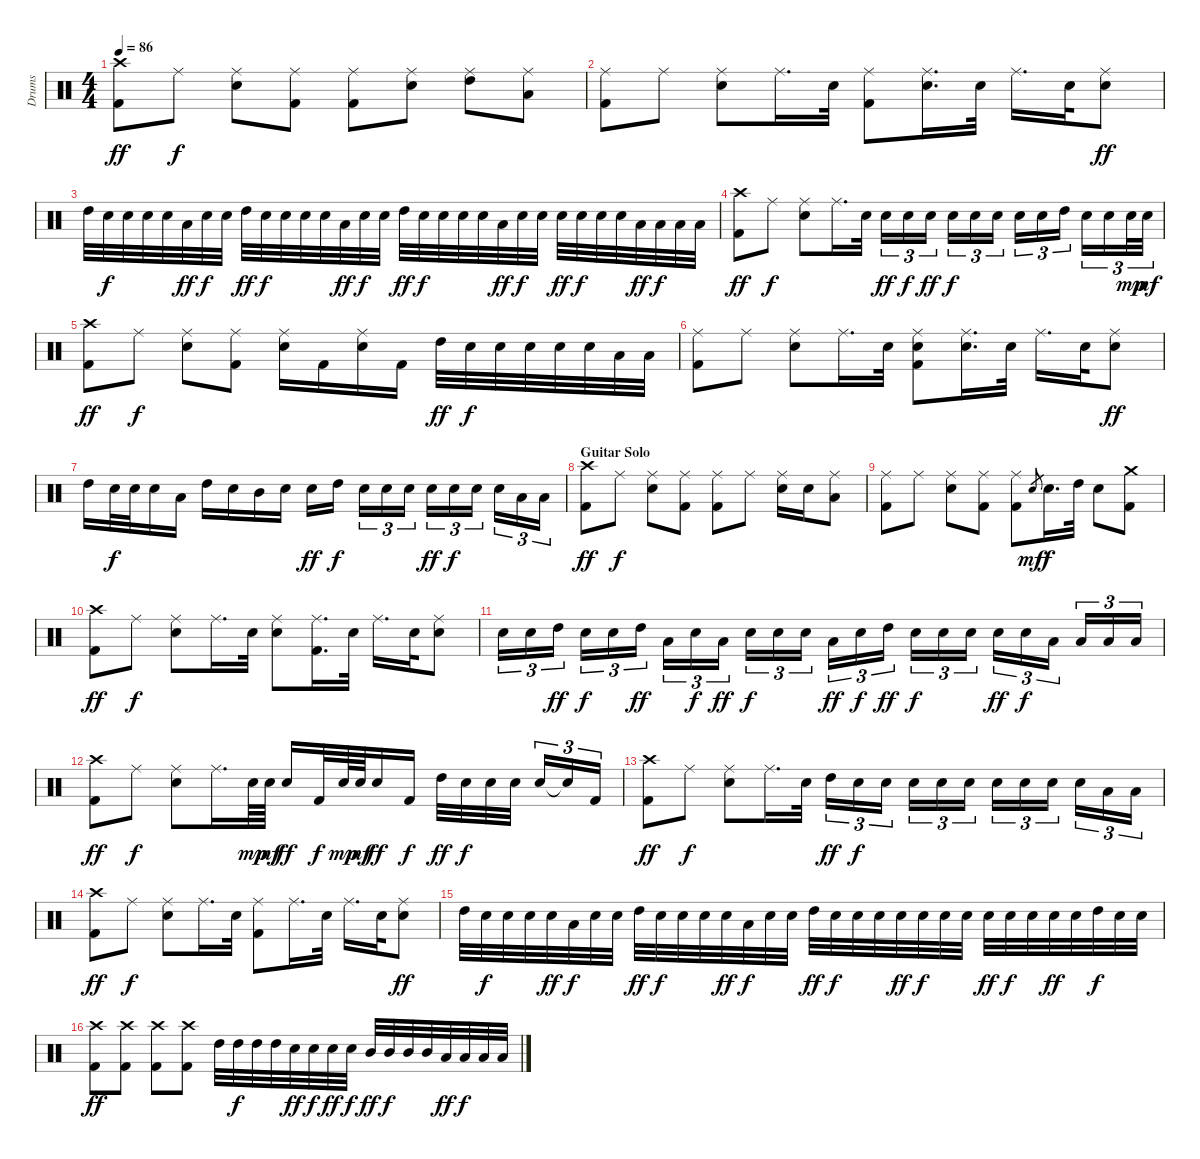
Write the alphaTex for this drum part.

\track ("Drums" "Drums") {instrument percussion}
\staff {score}
\articulation defaults
\ts (4 4)
\tempo 86
\clef neutral
\ks c
("Crash high (hit)" "Kick (hit) 2").8{dy ff} "Ride (middle)".8{dy f} ("Ride (middle)" "Electric Snare (hit)").8 ("Ride (middle)" "Kick (hit) 2").8 ("Ride (middle)" "Kick (hit) 2").8 ("Ride (middle)" "Electric Snare (hit)").8 ("Ride (middle)" "High Tom (hit)").8 ("Ride (middle)" "Low Tom (hit)").8 |
("Ride (middle)" "Kick (hit) 2").8 "Ride (middle)".8 ("Ride (middle)" "Electric Snare (hit)").8 "Ride (middle)".16{d} "Electric Snare (hit)".32 ("Ride (middle)" "Kick (hit) 2").8 ("Ride (middle)" "Electric Snare (hit)").16{d} "Electric Snare (hit)".32 "Ride (middle)".16{d} "Electric Snare (hit)".32 ("Ride (middle)" "Electric Snare (hit)").8{dy ff} |
"High Tom (hit)".32 "Electric Snare (hit)".32{dy f} "Electric Snare (hit)".32 "Electric Snare (hit)".32 "Electric Snare (hit)".32 "Low Tom (hit)".32{dy ff} "Electric Snare (hit)".32{dy f} "Electric Snare (hit)".32 "High Tom (hit)".32{dy ff} "Electric Snare (hit)".32{dy f} "Electric Snare (hit)".32 "Electric Snare (hit)".32 "Electric Snare (hit)".32 "Low Tom (hit)".32{dy ff} "Electric Snare (hit)".32{dy f} "Electric Snare (hit)".32 "High Tom (hit)".32{dy ff} "Electric Snare (hit)".32{dy f} "Electric Snare (hit)".32 "Electric Snare (hit)".32 "Electric Snare (hit)".32 "Low Tom (hit)".32{dy ff} "Electric Snare (hit)".32{dy f} "Electric Snare (hit)".32 "Electric Snare (hit)".32{dy ff} "Electric Snare (hit)".32{dy f} "Electric Snare (hit)".32 "Electric Snare (hit)".32 "Low Tom (hit)".32{dy ff} "Low Tom (hit)".32{dy f} "Low Tom (hit)".32 "Low Tom (hit)".32 |
("Crash high (hit)" "Kick (hit) 2").8{dy ff} "Ride (middle)".8{dy f} ("Ride (middle)" "Electric Snare (hit)").8 "Ride (middle)".16{d} "Electric Snare (hit)".32 "Electric Snare (hit)".16{tu (3 2) dy ff} "Electric Snare (hit)".16{tu (3 2) dy f} "Electric Snare (hit)".16{tu (3 2) dy ff} "Electric Snare (hit)".16{tu (3 2) dy f} "Electric Snare (hit)".16{tu (3 2)} "Electric Snare (hit)".16{tu (3 2)} "Electric Snare (hit)".16{tu (3 2)} "Electric Snare (hit)".16{tu (3 2)} "High Tom (hit)".16{tu (3 2)} "Electric Snare (hit)".16{tu (3 2)} "Electric Snare (hit)".16{tu (3 2)} "Electric Snare (hit)".32{tu (3 2) dy mp} "Electric Snare (hit)".32{tu (3 2) dy mf} |
("Crash high (hit)" "Kick (hit) 2").8{dy ff} "Ride (middle)".8{dy f} ("Ride (middle)" "Electric Snare (hit)").8 ("Ride (middle)" "Kick (hit) 2").8 ("Ride (middle)" "Electric Snare (hit)").16 "Kick (hit) 2".16 ("Ride (middle)" "Electric Snare (hit)").16 "Kick (hit) 2".16 "High Tom (hit)".32{dy ff} "Electric Snare (hit)".32{dy f} "Electric Snare (hit)".32 "Electric Snare (hit)".32 "Electric Snare (hit)".32 "Electric Snare (hit)".32 "Low Tom (hit)".32 "Low Tom (hit)".32 |
("Ride (middle)" "Kick (hit) 2").8 "Ride (middle)".8 ("Ride (middle)" "Electric Snare (hit)").8 "Ride (middle)".16{d} "Electric Snare (hit)".32 ("Ride (middle)" "Electric Snare (hit)" "Kick (hit) 2").8 ("Ride (middle)" "Electric Snare (hit)").16{d} "Electric Snare (hit)".32 "Ride (middle)".16{d} "Electric Snare (hit)".32 ("Ride (middle)" "Electric Snare (hit)").8{dy ff} |
"High Tom (hit)".16 "Electric Snare (hit)".32{dy f} "Electric Snare (hit)".32 "Electric Snare (hit)".16 "Low Tom (hit)".16 "High Tom (hit)".16 "Electric Snare (hit)".16 "Mid Tom (hit)".16 "Electric Snare (hit)".16 "Electric Snare (hit)".16{dy ff} "High Tom (hit)".16{dy f} "Electric Snare (hit)".16{tu (3 2)} "Electric Snare (hit)".16{tu (3 2)} "Electric Snare (hit)".16{tu (3 2)} "Electric Snare (hit)".16{tu (3 2) dy ff} "Electric Snare (hit)".16{tu (3 2) dy f} "Electric Snare (hit)".16{tu (3 2)} "Electric Snare (hit)".16{tu (3 2)} "Low Tom (hit)".16{tu (3 2)} "Low Tom (hit)".16{tu (3 2)} |
\section ("" "Guitar Solo")
("Crash high (hit)" "Kick (hit) 2").8{dy ff} "Ride (middle)".8{dy f} ("Ride (middle)" "Electric Snare (hit)").8 ("Ride (middle)" "Kick (hit) 2").8 ("Ride (middle)" "Kick (hit) 2").8 "Ride (middle)".8 ("Ride (middle)" "Electric Snare (hit)").16 "Electric Snare (hit)".16 ("Ride (middle)" "Low Tom (hit)").8 |
("Ride (middle)" "Kick (hit) 2").8 "Ride (middle)".8 ("Ride (middle)" "Electric Snare (hit)").8 ("Ride (middle)" "Kick (hit) 2").8 ("Ride (middle)" "Kick (hit) 2").8 "Electric Snare (hit)".8{gr dy mf} "Electric Snare (hit)".16{d dy f} "High Tom (hit)".32 "Electric Snare (hit)".8 ("Crash medium (hit)" "Kick (hit) 2").8 |
("Crash high (hit)" "Kick (hit) 2").8{dy ff} "Ride (middle)".8{dy f} ("Ride (middle)" "Electric Snare (hit)").8 "Ride (middle)".16{d} "Electric Snare (hit)".32 ("Ride (middle)" "Electric Snare (hit)").8 ("Ride (middle)" "Kick (hit) 2").16{d} "Electric Snare (hit)".32 "Ride (middle)".16{d} "Electric Snare (hit)".32 ("Ride (middle)" "Electric Snare (hit)").8 |
"Electric Snare (hit)".16{tu (3 2)} "Electric Snare (hit)".16{tu (3 2)} "High Tom (hit)".16{tu (3 2) dy ff} "Electric Snare (hit)".16{tu (3 2) dy f} "Electric Snare (hit)".16{tu (3 2)} "High Tom (hit)".16{tu (3 2) dy ff} "Low Tom (hit)".16{tu (3 2)} "Electric Snare (hit)".16{tu (3 2) dy f} "Low Tom (hit)".16{tu (3 2) dy ff} "Electric Snare (hit)".16{tu (3 2) dy f} "Electric Snare (hit)".16{tu (3 2)} "Electric Snare (hit)".16{tu (3 2)} "Low Tom (hit)".16{tu (3 2) dy ff} "Electric Snare (hit)".16{tu (3 2) dy f} "High Tom (hit)".16{tu (3 2) dy ff} "Electric Snare (hit)".16{tu (3 2) dy f} "Electric Snare (hit)".16{tu (3 2)} "Electric Snare (hit)".16{tu (3 2)} "Electric Snare (hit)".16{tu (3 2) dy ff} "Electric Snare (hit)".16{tu (3 2) dy f} "Low Tom (hit)".16{tu (3 2)} "Low Tom (hit)".16{tu (3 2)} "Low Tom (hit)".16{tu (3 2)} "Low Tom (hit)".16{tu (3 2)} |
("Crash high (hit)" "Kick (hit) 2").8{dy ff} "Ride (middle)".8{dy f} ("Ride (middle)" "Electric Snare (hit)").8 "Ride (middle)".16{d} "Electric Snare (hit)".64{dy mp} "Electric Snare (hit)".64{dy mf} "Electric Snare (hit)".16{dy ff} "Kick (hit) 2".32{dy f} "Electric Snare (hit)".64{dy mp} "Electric Snare (hit)".64{dy mf} "Electric Snare (hit)".16{dy ff} "Kick (hit) 2".16{dy f} "High Tom (hit)".32{dy ff} "Electric Snare (hit)".32{dy f} "Electric Snare (hit)".32 "Electric Snare (hit)".32 "Electric Snare (hit)".16{tu (3 2)} "Snare (hit)"{t}.16{tu (3 2)} "Kick (hit) 2".16{tu (3 2)} |
("Crash high (hit)" "Kick (hit) 2").8{dy ff} "Ride (middle)".8{dy f} ("Ride (middle)" "Electric Snare (hit)").8 "Ride (middle)".16{d} "Electric Snare (hit)".32 "High Tom (hit)".16{tu (3 2) dy ff} "Electric Snare (hit)".16{tu (3 2) dy f} "Electric Snare (hit)".16{tu (3 2)} "Electric Snare (hit)".16{tu (3 2)} "Electric Snare (hit)".16{tu (3 2)} "Electric Snare (hit)".16{tu (3 2)} "Electric Snare (hit)".16{tu (3 2)} "Electric Snare (hit)".16{tu (3 2)} "Electric Snare (hit)".16{tu (3 2)} "Electric Snare (hit)".16{tu (3 2)} "Low Tom (hit)".16{tu (3 2)} "Low Tom (hit)".16{tu (3 2)} |
("Crash high (hit)" "Kick (hit) 2").8{dy ff} "Ride (middle)".8{dy f} ("Ride (middle)" "Electric Snare (hit)").8 "Ride (middle)".16{d} "Electric Snare (hit)".32 ("Ride (middle)" "Kick (hit) 2").8 "Ride (middle)".16{d} "Electric Snare (hit)".32 "Ride (middle)".16{d} "Electric Snare (hit)".32 ("Ride (middle)" "Electric Snare (hit)").8{dy ff} |
"High Tom (hit)".32 "Electric Snare (hit)".32{dy f} "Electric Snare (hit)".32 "Electric Snare (hit)".32 "Electric Snare (hit)".32{dy ff} "Low Tom (hit)".32{dy f} "Electric Snare (hit)".32 "Electric Snare (hit)".32 "High Tom (hit)".32{dy ff} "Electric Snare (hit)".32{dy f} "Electric Snare (hit)".32 "Electric Snare (hit)".32 "Electric Snare (hit)".32{dy ff} "Low Tom (hit)".32{dy f} "Electric Snare (hit)".32 "Electric Snare (hit)".32 "High Tom (hit)".32{dy ff} "Electric Snare (hit)".32{dy f} "Electric Snare (hit)".32 "Electric Snare (hit)".32 "Electric Snare (hit)".32{dy ff} "Electric Snare (hit)".32{dy f} "Electric Snare (hit)".32 "Electric Snare (hit)".32 "Electric Snare (hit)".32{dy ff} "Electric Snare (hit)".32{dy f} "Electric Snare (hit)".32 "Electric Snare (hit)".32{dy ff} "Electric Snare (hit)".32 "High Tom (hit)".32{dy f} "Electric Snare (hit)".32 "Electric Snare (hit)".32 |
("Crash high (hit)" "Kick (hit) 2").8{dy ff} ("Crash high (hit)" "Kick (hit) 2").8 ("Crash high (hit)" "Kick (hit) 2").8 ("Crash high (hit)" "Kick (hit) 2").8 "High Tom (hit)".32 "High Tom (hit)".32{dy f} "High Tom (hit)".32 "High Tom (hit)".32 "Electric Snare (hit)".32{dy ff} "Electric Snare (hit)".32{dy f} "Electric Snare (hit)".32{dy ff} "Electric Snare (hit)".32{dy f} "Mid Tom (hit)".32{dy ff} "Mid Tom (hit)".32{dy f} "Mid Tom (hit)".32 "Mid Tom (hit)".32 "Low Tom (hit)".32{dy ff} "Low Tom (hit)".32{dy f} "Low Tom (hit)".32 "Low Tom (hit)".32
